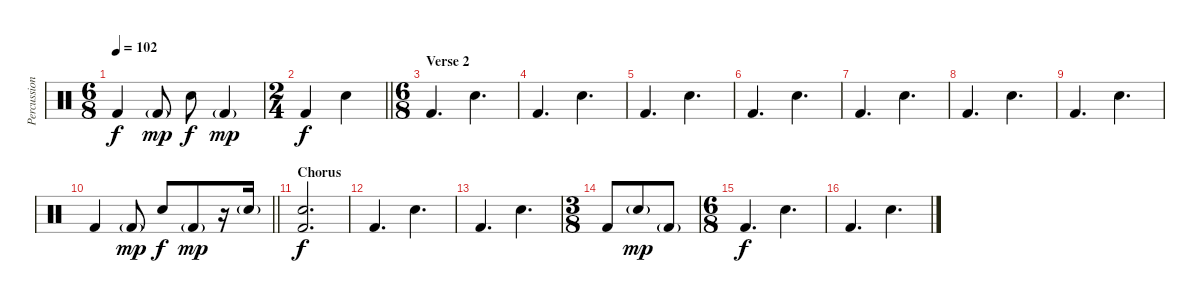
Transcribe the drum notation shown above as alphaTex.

\track ("Percussion" "Percussion") {instrument percussion}
\staff {score}
\articulation defaults
\ts (6 8)
\tempo 102
\clef neutral
\ks c "Kick (hit) 2".4{dy f} "Kick (hit) 2"{g}.8{dy mp} "Snare (hit) 2".8{dy f} "Kick (hit) 2"{g}.4{dy mp}
|
\ts (2 4)
\barLineRight lightlight "Kick (hit) 2".4{dy f} "Snare (hit) 2".4
|
\ts (6 8)
\section ("" "Verse 2")
"Kick (hit) 2".4{d} "Snare (hit) 2".4{d} |
"Kick (hit) 2".4{d} "Snare (hit) 2".4{d} |
"Kick (hit) 2".4{d} "Snare (hit) 2".4{d} |
"Kick (hit) 2".4{d} "Snare (hit) 2".4{d} |
"Kick (hit) 2".4{d} "Snare (hit) 2".4{d} |
"Kick (hit) 2".4{d} "Snare (hit) 2".4{d} |
"Kick (hit) 2".4{d} "Snare (hit) 2".4{d} |
\barLineRight lightlight "Kick (hit) 2".4 "Kick (hit) 2"{g}.8{dy mp} "Snare (hit) 2".8{dy f} "Kick (hit) 2"{g}.8{dy mp}
r.16 "Snare (hit) 2"{g}.16 |
\section ("" "Chorus")
("Snare (hit) 2" "Kick (hit) 2").2{d dy f} |
"Kick (hit) 2".4{d} "Snare (hit) 2".4{d} |
"Kick (hit) 2".4{d} "Snare (hit) 2".4{d} |
\ts (3 8)
"Kick (hit) 2".8 "Snare (hit) 2"{g}.8{dy mp} "Kick (hit) 2"{g}.8 |
\ts (6 8)
"Kick (hit) 2".4{d dy f} "Snare (hit) 2".4{d} |
"Kick (hit) 2".4{d} "Snare (hit) 2".4{d}
